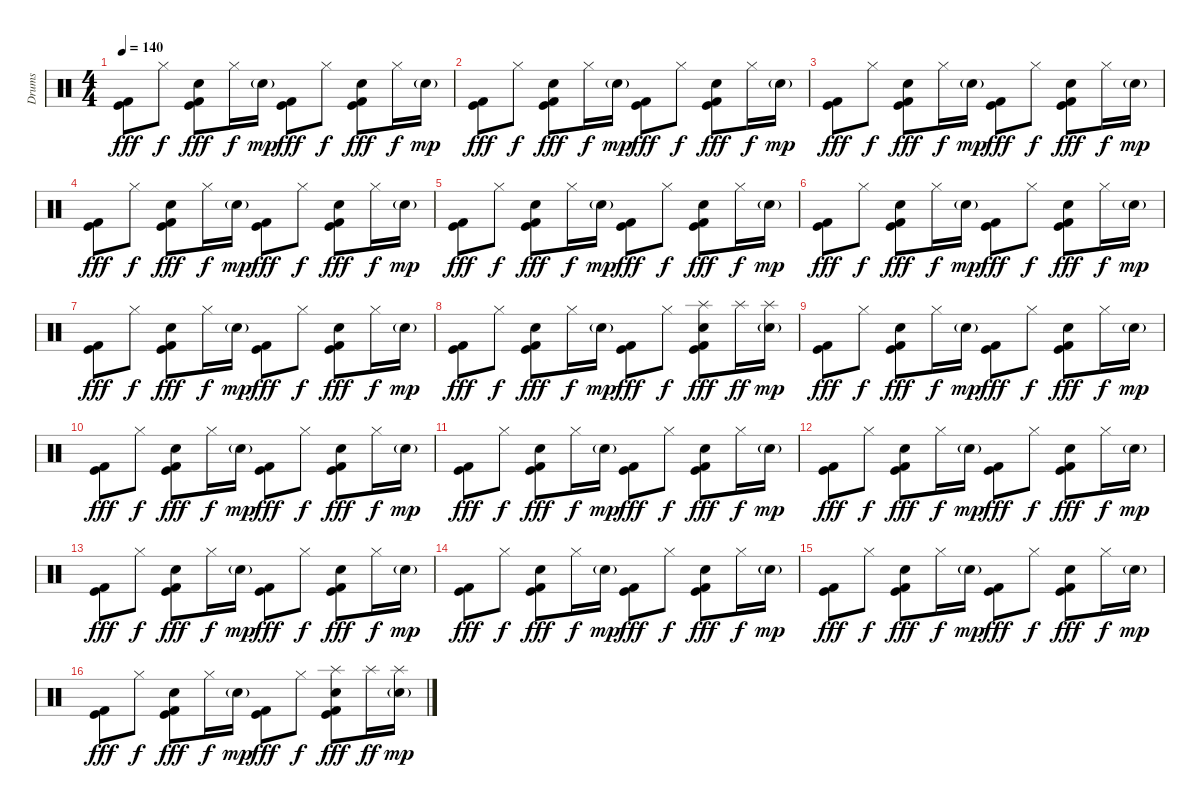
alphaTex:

\track ("Drums" "Drums") {instrument percussion}
\staff {score}
\articulation defaults
\ts (4 4)
\tempo 140
\clef neutral
\ks c
("Kick (hit) 2" "Kick (hit)").8{dy fff} "Hi-Hat (closed)".8{dy f} ("Hand Clap (hit)" "Kick (hit) 2" "Kick (hit)").8{dy fff} "Hi-Hat (closed)".16{dy f} "Hand Clap (hit)"{g}.16{dy mp} ("Kick (hit) 2" "Kick (hit)").8{dy fff} "Hi-Hat (closed)".8{dy f} ("Hand Clap (hit)" "Kick (hit) 2" "Kick (hit)").8{dy fff} "Hi-Hat (closed)".16{dy f} "Hand Clap (hit)"{g}.16{dy mp} |
("Kick (hit) 2" "Kick (hit)").8{dy fff} "Hi-Hat (closed)".8{dy f} ("Hand Clap (hit)" "Kick (hit) 2" "Kick (hit)").8{dy fff} "Hi-Hat (closed)".16{dy f} "Hand Clap (hit)"{g}.16{dy mp} ("Kick (hit) 2" "Kick (hit)").8{dy fff} "Hi-Hat (closed)".8{dy f} ("Hand Clap (hit)" "Kick (hit) 2" "Kick (hit)").8{dy fff} "Hi-Hat (closed)".16{dy f} "Hand Clap (hit)"{g}.16{dy mp} |
("Kick (hit) 2" "Kick (hit)").8{dy fff} "Hi-Hat (closed)".8{dy f} ("Hand Clap (hit)" "Kick (hit) 2" "Kick (hit)").8{dy fff} "Hi-Hat (closed)".16{dy f} "Hand Clap (hit)"{g}.16{dy mp} ("Kick (hit) 2" "Kick (hit)").8{dy fff} "Hi-Hat (closed)".8{dy f} ("Hand Clap (hit)" "Kick (hit) 2" "Kick (hit)").8{dy fff} "Hi-Hat (closed)".16{dy f} "Hand Clap (hit)"{g}.16{dy mp} |
("Kick (hit) 2" "Kick (hit)").8{dy fff} "Hi-Hat (closed)".8{dy f} ("Hand Clap (hit)" "Kick (hit) 2" "Kick (hit)").8{dy fff} "Hi-Hat (closed)".16{dy f} "Hand Clap (hit)"{g}.16{dy mp} ("Kick (hit) 2" "Kick (hit)").8{dy fff} "Hi-Hat (closed)".8{dy f} ("Hand Clap (hit)" "Kick (hit) 2" "Kick (hit)").8{dy fff} "Hi-Hat (closed)".16{dy f} "Hand Clap (hit)"{g}.16{dy mp} |
("Kick (hit) 2" "Kick (hit)").8{dy fff} "Hi-Hat (closed)".8{dy f} ("Hand Clap (hit)" "Kick (hit) 2" "Kick (hit)").8{dy fff} "Hi-Hat (closed)".16{dy f} "Hand Clap (hit)"{g}.16{dy mp} ("Kick (hit) 2" "Kick (hit)").8{dy fff} "Hi-Hat (closed)".8{dy f} ("Hand Clap (hit)" "Kick (hit) 2" "Kick (hit)").8{dy fff} "Hi-Hat (closed)".16{dy f} "Hand Clap (hit)"{g}.16{dy mp} |
("Kick (hit) 2" "Kick (hit)").8{dy fff} "Hi-Hat (closed)".8{dy f} ("Hand Clap (hit)" "Kick (hit) 2" "Kick (hit)").8{dy fff} "Hi-Hat (closed)".16{dy f} "Hand Clap (hit)"{g}.16{dy mp} ("Kick (hit) 2" "Kick (hit)").8{dy fff} "Hi-Hat (closed)".8{dy f} ("Hand Clap (hit)" "Kick (hit) 2" "Kick (hit)").8{dy fff} "Hi-Hat (closed)".16{dy f} "Hand Clap (hit)"{g}.16{dy mp} |
("Kick (hit) 2" "Kick (hit)").8{dy fff} "Hi-Hat (closed)".8{dy f} ("Hand Clap (hit)" "Kick (hit) 2" "Kick (hit)").8{dy fff} "Hi-Hat (closed)".16{dy f} "Hand Clap (hit)"{g}.16{dy mp} ("Kick (hit) 2" "Kick (hit)").8{dy fff} "Hi-Hat (closed)".8{dy f} ("Hand Clap (hit)" "Kick (hit) 2" "Kick (hit)").8{dy fff} "Hi-Hat (closed)".16{dy f} "Hand Clap (hit)"{g}.16{dy mp} |
("Kick (hit) 2" "Kick (hit)").8{dy fff} "Hi-Hat (closed)".8{dy f} ("Hand Clap (hit)" "Kick (hit) 2" "Kick (hit)").8{dy fff} "Hi-Hat (closed)".16{dy f} "Hand Clap (hit)"{g}.16{dy mp} ("Kick (hit) 2" "Kick (hit)").8{dy fff} "Hi-Hat (closed)".8{dy f} ("Splash (hit)" "Hand Clap (hit)" "Kick (hit) 2" "Kick (hit)").8{dy fff} "Splash (hit)".16{dy ff} ("Splash (hit)" "Hand Clap (hit)"{g}).16{dy mp} |
("Kick (hit) 2" "Kick (hit)").8{dy fff} "Hi-Hat (closed)".8{dy f} ("Hand Clap (hit)" "Kick (hit) 2" "Kick (hit)").8{dy fff} "Hi-Hat (closed)".16{dy f} "Hand Clap (hit)"{g}.16{dy mp} ("Kick (hit) 2" "Kick (hit)").8{dy fff} "Hi-Hat (closed)".8{dy f} ("Hand Clap (hit)" "Kick (hit) 2" "Kick (hit)").8{dy fff} "Hi-Hat (closed)".16{dy f} "Hand Clap (hit)"{g}.16{dy mp} |
("Kick (hit) 2" "Kick (hit)").8{dy fff} "Hi-Hat (closed)".8{dy f} ("Hand Clap (hit)" "Kick (hit) 2" "Kick (hit)").8{dy fff} "Hi-Hat (closed)".16{dy f} "Hand Clap (hit)"{g}.16{dy mp} ("Kick (hit) 2" "Kick (hit)").8{dy fff} "Hi-Hat (closed)".8{dy f} ("Hand Clap (hit)" "Kick (hit) 2" "Kick (hit)").8{dy fff} "Hi-Hat (closed)".16{dy f} "Hand Clap (hit)"{g}.16{dy mp} |
("Kick (hit) 2" "Kick (hit)").8{dy fff} "Hi-Hat (closed)".8{dy f} ("Hand Clap (hit)" "Kick (hit) 2" "Kick (hit)").8{dy fff} "Hi-Hat (closed)".16{dy f} "Hand Clap (hit)"{g}.16{dy mp} ("Kick (hit) 2" "Kick (hit)").8{dy fff} "Hi-Hat (closed)".8{dy f} ("Hand Clap (hit)" "Kick (hit) 2" "Kick (hit)").8{dy fff} "Hi-Hat (closed)".16{dy f} "Hand Clap (hit)"{g}.16{dy mp} |
("Kick (hit) 2" "Kick (hit)").8{dy fff} "Hi-Hat (closed)".8{dy f} ("Hand Clap (hit)" "Kick (hit) 2" "Kick (hit)").8{dy fff} "Hi-Hat (closed)".16{dy f} "Hand Clap (hit)"{g}.16{dy mp} ("Kick (hit) 2" "Kick (hit)").8{dy fff} "Hi-Hat (closed)".8{dy f} ("Hand Clap (hit)" "Kick (hit) 2" "Kick (hit)").8{dy fff} "Hi-Hat (closed)".16{dy f} "Hand Clap (hit)"{g}.16{dy mp} |
("Kick (hit) 2" "Kick (hit)").8{dy fff} "Hi-Hat (closed)".8{dy f} ("Hand Clap (hit)" "Kick (hit) 2" "Kick (hit)").8{dy fff} "Hi-Hat (closed)".16{dy f} "Hand Clap (hit)"{g}.16{dy mp} ("Kick (hit) 2" "Kick (hit)").8{dy fff} "Hi-Hat (closed)".8{dy f} ("Hand Clap (hit)" "Kick (hit) 2" "Kick (hit)").8{dy fff} "Hi-Hat (closed)".16{dy f} "Hand Clap (hit)"{g}.16{dy mp} |
("Kick (hit) 2" "Kick (hit)").8{dy fff} "Hi-Hat (closed)".8{dy f} ("Hand Clap (hit)" "Kick (hit) 2" "Kick (hit)").8{dy fff} "Hi-Hat (closed)".16{dy f} "Hand Clap (hit)"{g}.16{dy mp} ("Kick (hit) 2" "Kick (hit)").8{dy fff} "Hi-Hat (closed)".8{dy f} ("Hand Clap (hit)" "Kick (hit) 2" "Kick (hit)").8{dy fff} "Hi-Hat (closed)".16{dy f} "Hand Clap (hit)"{g}.16{dy mp} |
("Kick (hit) 2" "Kick (hit)").8{dy fff} "Hi-Hat (closed)".8{dy f} ("Hand Clap (hit)" "Kick (hit) 2" "Kick (hit)").8{dy fff} "Hi-Hat (closed)".16{dy f} "Hand Clap (hit)"{g}.16{dy mp} ("Kick (hit) 2" "Kick (hit)").8{dy fff} "Hi-Hat (closed)".8{dy f} ("Hand Clap (hit)" "Kick (hit) 2" "Kick (hit)").8{dy fff} "Hi-Hat (closed)".16{dy f} "Hand Clap (hit)"{g}.16{dy mp} |
("Kick (hit) 2" "Kick (hit)").8{dy fff} "Hi-Hat (closed)".8{dy f} ("Hand Clap (hit)" "Kick (hit) 2" "Kick (hit)").8{dy fff} "Hi-Hat (closed)".16{dy f} "Hand Clap (hit)"{g}.16{dy mp} ("Kick (hit) 2" "Kick (hit)").8{dy fff} "Hi-Hat (closed)".8{dy f} ("Splash (hit)" "Hand Clap (hit)" "Kick (hit) 2" "Kick (hit)").8{dy fff} "Splash (hit)".16{dy ff} ("Splash (hit)" "Hand Clap (hit)"{g}).16{dy mp}
